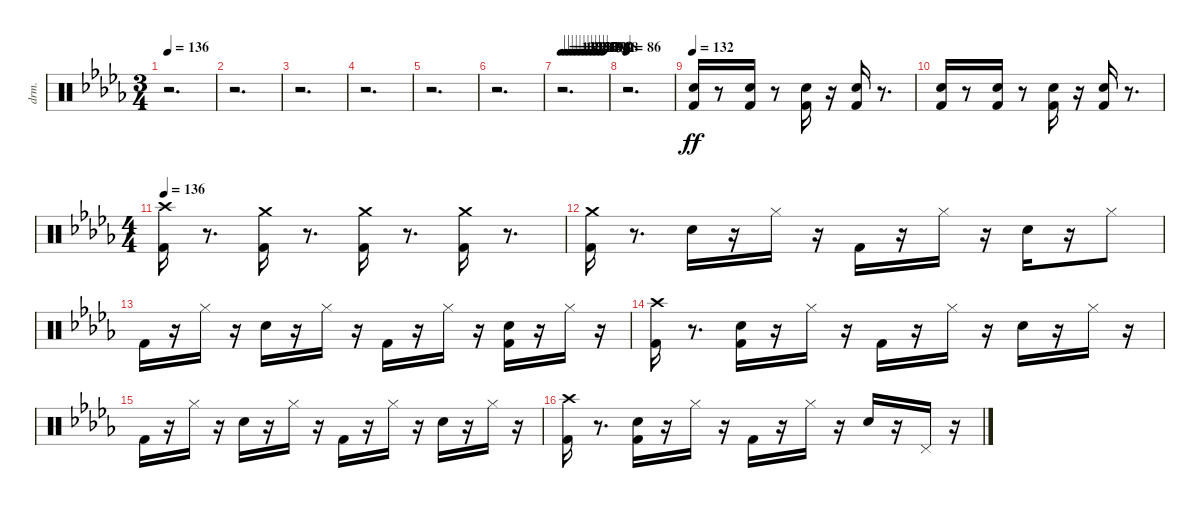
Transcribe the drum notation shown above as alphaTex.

\bracketExtendMode nobrackets
\track ("Drums" "drm.") {instrument percussion}
\staff {score}
\articulation defaults
\ts (3 4)
\tempo 136
\clef neutral
\ks db
r.2{d dy ff beam Down} |
r.2{d beam Down} |
r.2{d beam Down} |
r.2{d beam Down} |
r.2{d beam Down} |
r.2{d beam Down} |
\tempo 133
\tempo (129 0.0833333)
\tempo (125 0.166667)
\tempo (121 0.25)
\tempo (117 0.333333)
\tempo (113 0.416667)
\tempo (108 0.5)
\tempo (104 0.583333)
\tempo (100 0.666667)
\tempo (96 0.75)
\tempo (92 0.833333)
\tempo (88 0.916667)
r.2{d beam Down} |
\tempo 86
r.2{d beam Down} |
\tempo 132
("Kick (hit) 2"{acc forcenatural} "Electric Snare (hit)"{acc forcenatural}).16{beam Up} r.8{beam Up} ("Kick (hit) 2"{acc forcenatural} "Electric Snare (hit)"{acc forcenatural}).16{beam Up} r.8{beam Down} ("Kick (hit) 2"{acc forcenatural} "Electric Snare (hit)"{acc forcenatural}).16{beam Up} r.16{beam Down} ("Kick (hit) 2"{acc forcenatural} "Electric Snare (hit)"{acc forcenatural}).16{beam Up} r.8{d beam Down} |
("Kick (hit) 2"{acc forcenatural} "Electric Snare (hit)"{acc forcenatural}).16{beam Up} r.8{beam Up} ("Kick (hit) 2"{acc forcenatural} "Electric Snare (hit)"{acc forcenatural}).16{beam Up} r.8{beam Down} ("Kick (hit) 2"{acc forcenatural} "Electric Snare (hit)"{acc forcenatural}).16{beam Up} r.16{beam Down} ("Kick (hit) 2"{acc forcenatural} "Electric Snare (hit)"{acc forcenatural}).16{beam Up} r.8{d beam Down} |
\ts (4 4)
\tempo 136
("Kick (hit) 2"{acc forcenatural} "Crash high (hit)"{acc #}).16{beam Down} r.8{d beam Down} ("Kick (hit) 2"{acc forcenatural} "Crash medium (hit)"{acc forcenatural}).16{beam Down} r.8{d beam Down} ("Kick (hit) 2"{acc forcenatural} "Crash medium (hit)"{acc forcenatural}).16{beam Down} r.8{d beam Down} ("Kick (hit) 2"{acc forcenatural} "Crash medium (hit)"{acc forcenatural}).16{beam Down} r.8{d beam Down} |
("Kick (hit) 2"{acc forcenatural} "Crash medium (hit)"{acc forcenatural}).16{beam Down} r.8{d beam Down} "Electric Snare (hit)"{acc forcenatural}.16{beam Down} r.16{beam Down} "Hi-Hat (closed)"{acc #}.16{beam Down} r.16{beam Down} "Kick (hit) 2"{acc forcenatural}.16{beam Down} r.16{beam Down} "Hi-Hat (closed)"{acc #}.16{beam Down} r.16{beam Down} "Electric Snare (hit)"{acc forcenatural}.16{beam Down} r.16{beam Down} "Hi-Hat (closed)"{acc forcenatural}.8{beam Down} |
"Kick (hit) 2"{acc forcenatural}.16{beam Down} r.16{beam Down} "Hi-Hat (closed)"{acc #}.16{beam Down} r.16{beam Down} "Electric Snare (hit)"{acc forcenatural}.16{beam Down} r.16{beam Down} "Hi-Hat (closed)"{acc #}.16{beam Down} r.16{beam Down} "Kick (hit) 2"{acc forcenatural}.16{beam Down} r.16{beam Down} "Hi-Hat (closed)"{acc #}.16{beam Down} r.16{beam Down} ("Kick (hit) 2"{acc forcenatural} "Electric Snare (hit)"{acc forcenatural}).16{beam Down} r.16{beam Down} "Hi-Hat (closed)"{acc #}.16{beam Down} r.16{beam Down} |
("Kick (hit) 2"{acc forcenatural} "Crash high (hit)"{acc #}).16{beam Down} r.8{d beam Down} ("Kick (hit) 2"{acc forcenatural} "Electric Snare (hit)"{acc forcenatural}).16{beam Down} r.16{beam Down} "Hi-Hat (closed)"{acc #}.16{beam Down} r.16{beam Down} "Kick (hit) 2"{acc forcenatural}.16{beam Down} r.16{beam Down} "Hi-Hat (closed)"{acc #}.16{beam Down} r.16{beam Down} "Electric Snare (hit)"{acc forcenatural}.16{beam Down} r.16{beam Down} "Hi-Hat (closed)"{acc #}.16{beam Down} r.16{beam Down} |
"Kick (hit) 2"{acc forcenatural}.16{beam Down} r.16{beam Down} "Hi-Hat (closed)"{acc #}.16{beam Down} r.16{beam Down} "Electric Snare (hit)"{acc forcenatural}.16{beam Down} r.16{beam Down} "Hi-Hat (closed)"{acc #}.16{beam Down} r.16{beam Down} "Kick (hit) 2"{acc forcenatural}.16{beam Down} r.16{beam Down} "Hi-Hat (closed)"{acc #}.16{beam Down} r.16{beam Down} "Electric Snare (hit)"{acc forcenatural}.16{beam Down} r.16{beam Down} "Hi-Hat (closed)"{acc #}.16{beam Down} r.16{beam Down} |
("Kick (hit) 2"{acc forcenatural} "Crash high (hit)"{acc #}).16{beam Down} r.8{d beam Down} ("Kick (hit) 2"{acc forcenatural} "Electric Snare (hit)"{acc forcenatural}).16{beam Down} r.16{beam Down} "Hi-Hat (closed)"{acc #}.16{beam Down} r.16{beam Down} "Kick (hit) 2"{acc forcenatural}.16{beam Down} r.16{beam Down} "Hi-Hat (closed)"{acc #}.16{beam Down} r.16{beam Down} "Electric Snare (hit)"{acc forcenatural}.16{beam Up} r.16{beam Up} "Pedal Hi-Hat (hit)"{acc #}.16{beam Up} r.16{beam Down}
